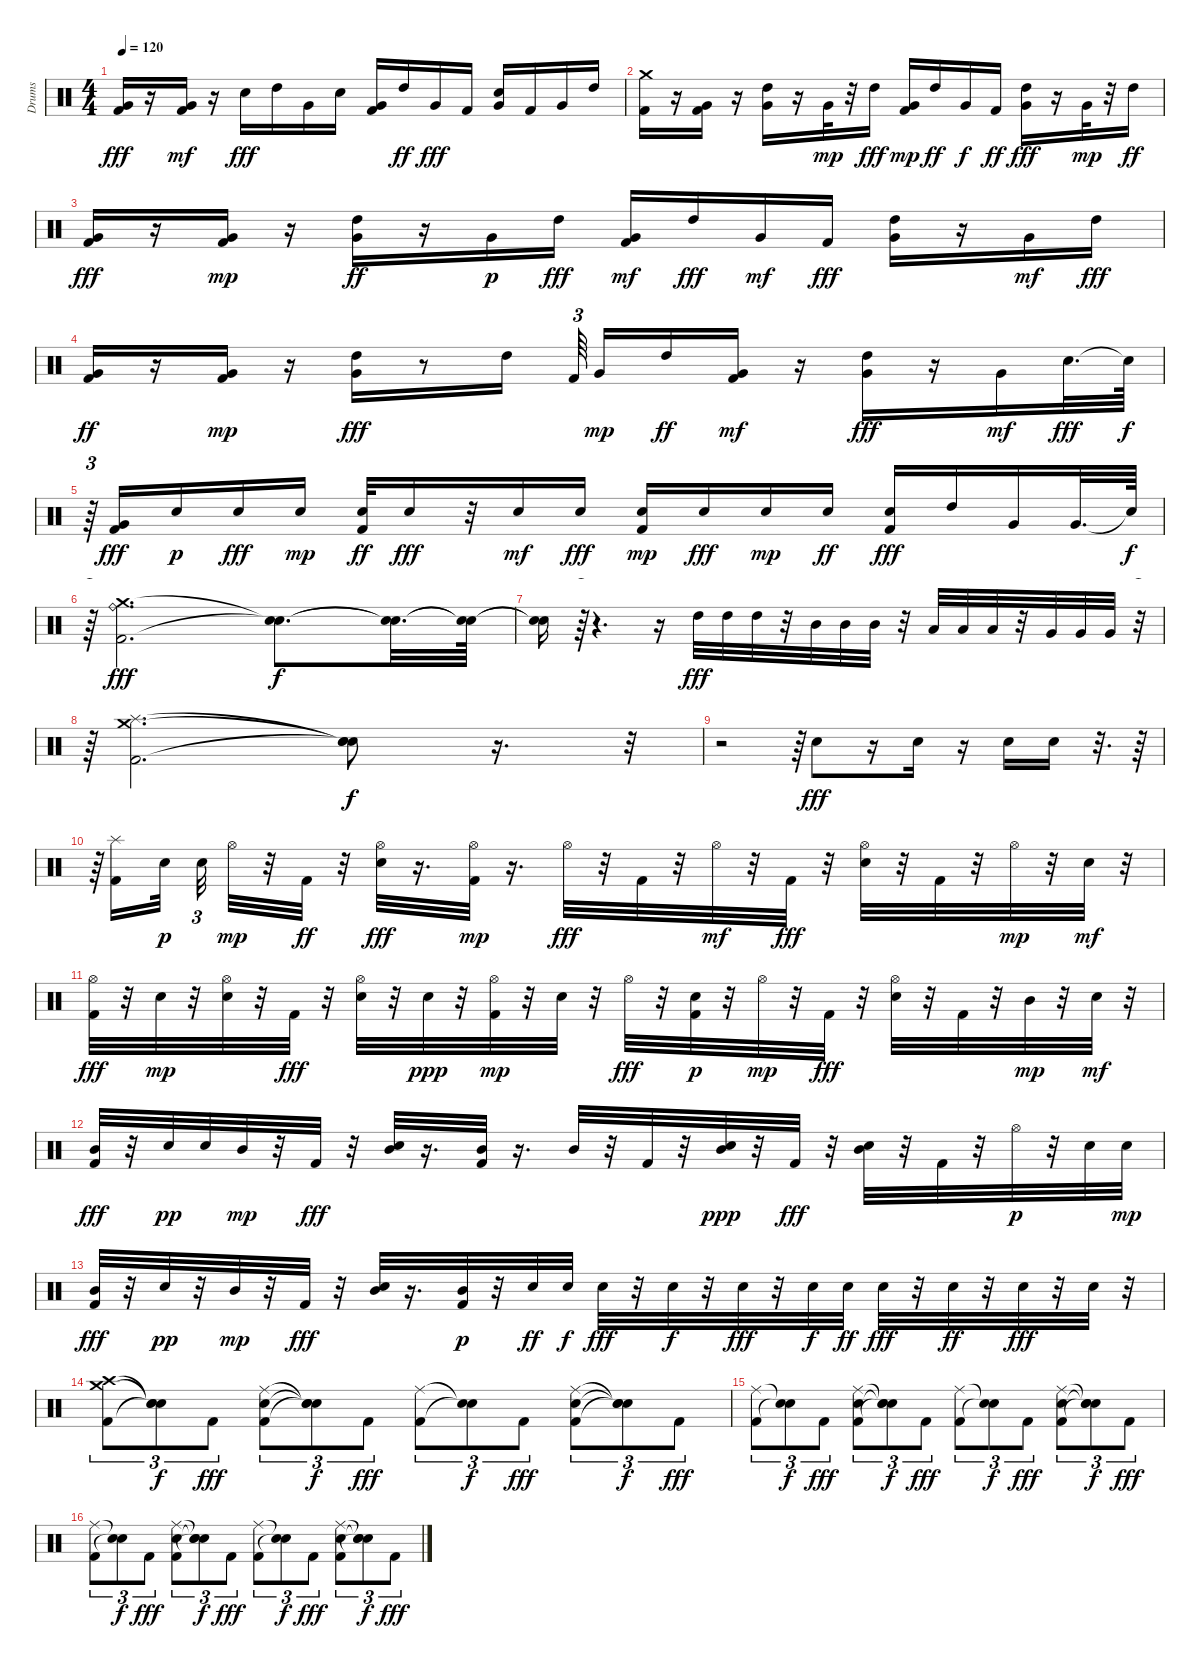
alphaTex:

\track ("Drums" "Drums") {instrument percussion}
\staff {score}
\articulation defaults
\ts (4 4)
\tempo 120
\clef neutral
\ks c
("Kick (hit) 2" "Very Low Tom (hit)").16{dy fff} r.16 ("Kick (hit) 2" "Very Low Tom (hit)").16{dy mf} r.16 "Snare (hit) 2".16{dy fff} "High Tom (hit)".16 "Very Low Tom (hit)".16 "Snare (hit) 2".16 ("Kick (hit) 2" "Very Low Tom (hit)").16 "High Tom (hit)".16{dy ff} "Very Low Tom (hit)".16{dy fff} "Kick (hit) 2".16 ("Snare (hit) 2" "Very Low Tom (hit)").16 "Kick (hit) 2".16 "Very Low Tom (hit)".16 "High Tom (hit)".16 |
("Kick (hit) 2" "Crash medium (hit)").16 r.16 ("Very Low Tom (hit)" "Kick (hit) 2").16 r.16 ("Very Low Tom (hit)" "High Tom (hit)").16 r.16 "Very Low Tom (hit)".32{dy mp} r.32 "High Tom (hit)".16{dy fff} ("Kick (hit) 2" "Very Low Tom (hit)").16{dy mp} "High Tom (hit)".16{dy ff} "Very Low Tom (hit)".16{dy f} "Kick (hit) 2".16{dy ff} ("Very Low Tom (hit)" "High Tom (hit)").16{dy fff} r.16 "Very Low Tom (hit)".32{dy mp} r.32 "High Tom (hit)".16{dy ff} |
("Kick (hit) 2" "Very Low Tom (hit)").16{dy fff} r.16 ("Kick (hit) 2" "Very Low Tom (hit)").16{dy mp} r.16 ("High Tom (hit)" "Very Low Tom (hit)").16{dy ff} r.16 "Very Low Tom (hit)".16{dy p} "High Tom (hit)".16{dy fff} ("Kick (hit) 2" "Very Low Tom (hit)").16{dy mf} "High Tom (hit)".16{dy fff} "Very Low Tom (hit)".16{dy mf} "Kick (hit) 2".16{dy fff} ("Very Low Tom (hit)" "High Tom (hit)").16 r.16 "Very Low Tom (hit)".16{dy mf} "High Tom (hit)".16{dy fff} |
("Kick (hit) 2" "Very Low Tom (hit)").16{dy ff} r.16 ("Kick (hit) 2" "Very Low Tom (hit)").16{dy mp} r.16 ("Very Low Tom (hit)" "High Tom (hit)").16{dy fff} r.8 "High Tom (hit)".16 "Kick (hit) 2".64{tu (3 2) beam splitsecondary} "Very Low Tom (hit)".16{dy mp} "High Tom (hit)".16{dy ff} ("Kick (hit) 2" "Very Low Tom (hit)").16{dy mf} r.16 ("Very Low Tom (hit)" "High Tom (hit)").16{dy fff} r.16 "Very Low Tom (hit)".16{dy mf} "Snare (hit) 2".32{d dy fff} "Snare (hit)"{t}.64{dy f} |
r.64{tu (3 2)} ("Very Low Tom (hit)" "Kick (hit) 2").16{dy fff} "Snare (hit) 2".16{dy p} "Snare (hit) 2".16{dy fff} "Snare (hit) 2".16{dy mp} ("Kick (hit) 2" "Snare (hit) 2").32{dy ff} "Snare (hit) 2".16{dy fff} r.32 "Snare (hit) 2".16{dy mf} "Snare (hit) 2".16{dy fff} ("Kick (hit) 2" "Snare (hit) 2").16{dy mp} "Snare (hit) 2".16{dy fff} "Snare (hit) 2".16{dy mp} "Snare (hit) 2".16{dy ff} ("Kick (hit) 2" "Snare (hit) 2").16{dy fff} "High Tom (hit)".16 "Very Low Tom (hit)".16 "Very Low Tom (hit)".32{d} "Snare (hit)"{t}.64{dy f} |
r.64{tu (3 2)} ("Crash medium (hit)" "Kick (hit) 2" "Ride (bell)").2{d dy fff} ("Snare (hit)"{t} "Snare (hit)"{t}).8{d dy f} ("Snare (hit)"{t} "Snare (hit)"{t}).32{d} ("Snare (hit)"{t} "Snare (hit)"{t}).64 |
("Snare (hit)"{t} "Snare (hit)"{t}).16 r.64{tu (3 2)} r.4{d} r.16 "High Tom (hit)".32{dy fff} "High Tom (hit)".32 "High Tom (hit)".32 r.32 "Mid Tom (hit)".32 "Mid Tom (hit)".32 "Mid Tom (hit)".32 r.32 "Low Tom (hit)".32 "Low Tom (hit)".32 "Low Tom (hit)".32 r.32 "Very Low Tom (hit)".32 "Very Low Tom (hit)".32 "Very Low Tom (hit)".32 r.32{tu (3 2)} |
r.64{tu (3 2)} ("Crash medium (hit)" "Splash (hit)" "Kick (hit) 2").2{d} ("Snare (hit)"{t} "Snare (hit)"{t} "Snare (hit)"{t}).8{dy f} r.16{d} r.32{tu (3 2)} |
r.2 r.64{tu (3 2)} "Snare (hit) 2".8{dy fff} r.16 "Snare (hit) 2".16 r.16 "Snare (hit) 2".16 "Snare (hit) 2".16 r.32{d} r.64 |
r.64{tu (3 2)} ("Splash (hit)" "Kick (hit) 2").16 "Snare (hit) 2".32{dy p beam splitsecondary} "Snare (hit) 2".32{tu (3 2)} "Hi-Hat (open)".32{dy mp} r.32 "Kick (hit) 2".32{dy ff} r.32 ("Snare (hit) 2" "Hi-Hat (open)").32{dy fff} r.16{d} ("Kick (hit) 2" "Hi-Hat (open)").32{dy mp} r.16{d} "Hi-Hat (open)".32{dy fff} r.32 "Kick (hit) 2".32 r.32 "Hi-Hat (open)".32{dy mf} r.32 "Kick (hit) 2".32{dy fff} r.32 ("Snare (hit) 2" "Hi-Hat (open)").32 r.32 "Kick (hit) 2".32 r.32 "Hi-Hat (open)".32{dy mp} r.32 "Snare (hit) 2".32{dy mf} r.32 |
("Hi-Hat (open)" "Kick (hit) 2").32{dy fff} r.32 "Snare (hit) 2".32{dy mp} r.32 ("Snare (hit) 2" "Hi-Hat (open)").32 r.32 "Kick (hit) 2".32{dy fff} r.32 ("Snare (hit) 2" "Hi-Hat (open)").32 r.32 "Snare (hit) 2".32{dy ppp} r.32 ("Kick (hit) 2" "Hi-Hat (open)").32{dy mp} r.32 "Snare (hit) 2".32 r.32 "Hi-Hat (open)".32{dy fff} r.32 ("Kick (hit) 2" "Snare (hit) 2").32{dy p} r.32 "Hi-Hat (open)".32{dy mp} r.32 "Kick (hit) 2".32{dy fff} r.32 ("Hi-Hat (open)" "Snare (hit) 2").32 r.32 "Kick (hit) 2".32 r.32 "Mid Tom (hit)".32{dy mp} r.32 "Snare (hit) 2".32{dy mf} r.32 |
("Mid Tom (hit)" "Kick (hit) 2").32{dy fff} r.32 "Snare (hit) 2".32{dy pp} "Snare (hit) 2".32 "Mid Tom (hit)".32{dy mp} r.32 "Kick (hit) 2".32{dy fff} r.32 ("Snare (hit) 2" "Mid Tom (hit)").32 r.16{d} ("Mid Tom (hit)" "Kick (hit) 2").32 r.16{d} "Mid Tom (hit)".32 r.32 "Kick (hit) 2".32 r.32 ("Mid Tom (hit)" "Snare (hit) 2").32{dy ppp} r.32 "Kick (hit) 2".32{dy fff} r.32 ("Snare (hit) 2" "Mid Tom (hit)").32 r.32 "Kick (hit) 2".32 r.32 "Hi-Hat (open)".32{dy p} r.32 "Snare (hit) 2".32 "Snare (hit) 2".32{dy mp} |
("Mid Tom (hit)" "Kick (hit) 2").32{dy fff} r.32 "Snare (hit) 2".32{dy pp} r.32 "Mid Tom (hit)".32{dy mp} r.32 "Kick (hit) 2".32{dy fff} r.32 ("Snare (hit) 2" "Mid Tom (hit)").32 r.16{d} ("Kick (hit) 2" "Mid Tom (hit)").32{dy p} r.32 "Snare (hit) 2".32{dy ff} "Snare (hit) 2".32{dy f} "Snare (hit) 2".32{dy fff} r.32 "Snare (hit) 2".32{dy f} r.32 "Snare (hit) 2".32{dy fff} r.32 "Snare (hit) 2".32{dy f} "Snare (hit) 2".32{dy ff} "Snare (hit) 2".32{dy fff} r.32 "Snare (hit) 2".32{dy ff} r.32 "Snare (hit) 2".32{dy fff} r.32 "Snare (hit) 2".32 r.32 |
("Crash high (hit)" "Kick (hit) 2" "Crash medium (hit)").8{tu (3 2)} ("Snare (hit)"{t} "Snare (hit)"{t} "Snare (hit)"{t}).8{tu (3 2) dy f} "Kick (hit) 2".8{tu (3 2) dy fff} ("Ride (middle)" "Kick (hit) 2" "Snare (hit) 2").8{tu (3 2)} ("Snare (hit)"{t} "Snare (hit)"{t} "Snare (hit)"{t}).8{tu (3 2) dy f} "Kick (hit) 2".8{tu (3 2) dy fff} ("Kick (hit) 2" "Ride (middle)").8{tu (3 2)} ("Snare (hit)"{t} "Snare (hit)"{t}).8{tu (3 2) dy f} "Kick (hit) 2".8{tu (3 2) dy fff} ("Snare (hit) 2" "Ride (middle)" "Kick (hit) 2").8{tu (3 2)} ("Snare (hit)"{t} "Snare (hit)"{t} "Snare (hit)"{t}).8{tu (3 2) dy f} "Kick (hit) 2".8{tu (3 2) dy fff} |
("Ride (middle)" "Kick (hit) 2").8{tu (3 2)} ("Snare (hit)"{t} "Snare (hit)"{t}).8{tu (3 2) dy f} "Kick (hit) 2".8{tu (3 2) dy fff} ("Kick (hit) 2" "Ride (middle)" "Snare (hit) 2").8{tu (3 2)} ("Snare (hit)"{t} "Snare (hit)"{t} "Snare (hit)"{t}).8{tu (3 2) dy f} "Kick (hit) 2".8{tu (3 2) dy fff} ("Ride (middle)" "Kick (hit) 2").8{tu (3 2)} ("Snare (hit)"{t} "Snare (hit)"{t}).8{tu (3 2) dy f} "Kick (hit) 2".8{tu (3 2) dy fff} ("Kick (hit) 2" "Ride (middle)" "Snare (hit) 2").8{tu (3 2)} ("Snare (hit)"{t} "Snare (hit)"{t} "Snare (hit)"{t}).8{tu (3 2) dy f} "Kick (hit) 2".8{tu (3 2) dy fff} |
("Ride (middle)" "Kick (hit) 2").8{tu (3 2)} ("Snare (hit)"{t} "Snare (hit)"{t}).8{tu (3 2) dy f} "Kick (hit) 2".8{tu (3 2) dy fff} ("Snare (hit) 2" "Ride (middle)" "Kick (hit) 2").8{tu (3 2)} ("Snare (hit)"{t} "Snare (hit)"{t} "Snare (hit)"{t}).8{tu (3 2) dy f} "Kick (hit) 2".8{tu (3 2) dy fff} ("Kick (hit) 2" "Ride (middle)").8{tu (3 2)} ("Snare (hit)"{t} "Snare (hit)"{t}).8{tu (3 2) dy f} "Kick (hit) 2".8{tu (3 2) dy fff} ("Snare (hit) 2" "Ride (middle)" "Kick (hit) 2").8{tu (3 2)} ("Snare (hit)"{t} "Snare (hit)"{t} "Snare (hit)"{t}).8{tu (3 2) dy f} "Kick (hit) 2".8{tu (3 2) dy fff}
